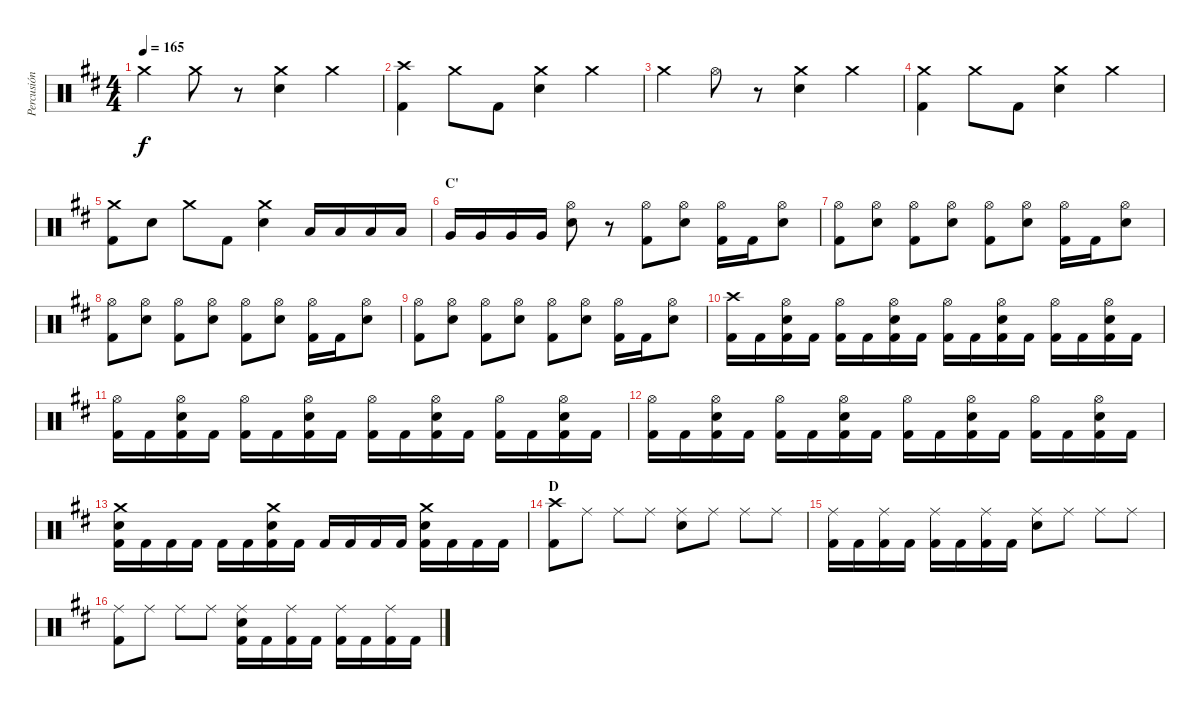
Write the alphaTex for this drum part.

\track ("Percusión" "Percusión") {instrument percussion}
\staff {score}
\articulation defaults
\ts (4 4)
\tempo 165
\clef neutral
\ks d "Crash medium (hit)".4{dy f} "Crash medium (hit)".8
r.8 ("Crash medium (hit)" "Electric Snare (hit)").4 "Crash medium (hit)".4 |
("Crash high (hit)" "Kick (hit) 2").4 "Crash medium (hit)".8 "Kick (hit) 2".8 ("Crash medium (hit)" "Electric Snare (hit)").4 "Crash medium (hit)".4 |
"Crash medium (hit)".4 "Hi-Hat (open)".8 r.8 ("Crash medium (hit)" "Electric Snare (hit)").4 "Crash medium (hit)".4 |
("Crash medium (hit)" "Kick (hit) 2").4 "Crash medium (hit)".8 "Kick (hit) 2".8 ("Crash medium (hit)" "Electric Snare (hit)").4 "Crash medium (hit)".4 |
("Crash medium (hit)" "Kick (hit) 2").8 "Electric Snare (hit)".8 "Crash medium (hit)".8 "Kick (hit) 2".8 ("Crash medium (hit)" "Electric Snare (hit)").4 "Low Tom (hit)".16 "Low Tom (hit)".16 "Low Tom (hit)".16 "Low Tom (hit)".16 |
\section ("" "C'")
"Very Low Tom (hit)".16 "Very Low Tom (hit)".16 "Very Low Tom (hit)".16 "Very Low Tom (hit)".16 ("Hi-Hat (open)" "Electric Snare (hit)").8 r.8 ("Hi-Hat (open)" "Kick (hit) 2").8 ("Hi-Hat (open)" "Electric Snare (hit)").8 ("Hi-Hat (open)" "Kick (hit) 2").16 "Kick (hit) 2".16 ("Hi-Hat (open)" "Electric Snare (hit)").8 |
("Hi-Hat (open)" "Kick (hit) 2").8 ("Hi-Hat (open)" "Electric Snare (hit)").8 ("Hi-Hat (open)" "Kick (hit) 2").8 ("Hi-Hat (open)" "Electric Snare (hit)").8 ("Hi-Hat (open)" "Kick (hit) 2").8 ("Hi-Hat (open)" "Electric Snare (hit)").8 ("Hi-Hat (open)" "Kick (hit) 2").16 "Kick (hit) 2".16 ("Hi-Hat (open)" "Electric Snare (hit)").8 |
("Hi-Hat (open)" "Kick (hit) 2").8 ("Hi-Hat (open)" "Electric Snare (hit)").8 ("Hi-Hat (open)" "Kick (hit) 2").8 ("Hi-Hat (open)" "Electric Snare (hit)").8 ("Hi-Hat (open)" "Kick (hit) 2").8 ("Hi-Hat (open)" "Electric Snare (hit)").8 ("Hi-Hat (open)" "Kick (hit) 2").16 "Kick (hit) 2".16 ("Hi-Hat (open)" "Electric Snare (hit)").8 |
("Hi-Hat (open)" "Kick (hit) 2").8 ("Hi-Hat (open)" "Electric Snare (hit)").8 ("Hi-Hat (open)" "Kick (hit) 2").8 ("Hi-Hat (open)" "Electric Snare (hit)").8 ("Hi-Hat (open)" "Kick (hit) 2").8 ("Hi-Hat (open)" "Electric Snare (hit)").8 ("Hi-Hat (open)" "Kick (hit) 2").16 "Kick (hit) 2".16 ("Hi-Hat (open)" "Electric Snare (hit)").8 |
("Crash high (hit)" "Kick (hit) 2").16 "Kick (hit) 2".16 ("Hi-Hat (open)" "Electric Snare (hit)" "Kick (hit) 2").16 "Kick (hit) 2".16 ("Hi-Hat (open)" "Kick (hit) 2").16 "Kick (hit) 2".16 ("Hi-Hat (open)" "Electric Snare (hit)" "Kick (hit) 2").16 "Kick (hit) 2".16 ("Hi-Hat (open)" "Kick (hit) 2").16 "Kick (hit) 2".16 ("Hi-Hat (open)" "Electric Snare (hit)" "Kick (hit) 2").16 "Kick (hit) 2".16 ("Hi-Hat (open)" "Kick (hit) 2").16 "Kick (hit) 2".16 ("Hi-Hat (open)" "Electric Snare (hit)" "Kick (hit) 2").16 "Kick (hit) 2".16 |
("Hi-Hat (open)" "Kick (hit) 2").16 "Kick (hit) 2".16 ("Hi-Hat (open)" "Electric Snare (hit)" "Kick (hit) 2").16 "Kick (hit) 2".16 ("Hi-Hat (open)" "Kick (hit) 2").16 "Kick (hit) 2".16 ("Hi-Hat (open)" "Electric Snare (hit)" "Kick (hit) 2").16 "Kick (hit) 2".16 ("Hi-Hat (open)" "Kick (hit) 2").16 "Kick (hit) 2".16 ("Hi-Hat (open)" "Electric Snare (hit)" "Kick (hit) 2").16 "Kick (hit) 2".16 ("Hi-Hat (open)" "Kick (hit) 2").16 "Kick (hit) 2".16 ("Hi-Hat (open)" "Electric Snare (hit)" "Kick (hit) 2").16 "Kick (hit) 2".16 |
("Hi-Hat (open)" "Kick (hit) 2").16 "Kick (hit) 2".16 ("Hi-Hat (open)" "Electric Snare (hit)" "Kick (hit) 2").16 "Kick (hit) 2".16 ("Hi-Hat (open)" "Kick (hit) 2").16 "Kick (hit) 2".16 ("Hi-Hat (open)" "Electric Snare (hit)" "Kick (hit) 2").16 "Kick (hit) 2".16 ("Hi-Hat (open)" "Kick (hit) 2").16 "Kick (hit) 2".16 ("Hi-Hat (open)" "Electric Snare (hit)" "Kick (hit) 2").16 "Kick (hit) 2".16 ("Hi-Hat (open)" "Kick (hit) 2").16 "Kick (hit) 2".16 ("Hi-Hat (open)" "Electric Snare (hit)" "Kick (hit) 2").16 "Kick (hit) 2".16 |
("Crash medium (hit)" "Electric Snare (hit)" "Kick (hit) 2").16 "Kick (hit) 2".16 "Kick (hit) 2".16 "Kick (hit) 2".16 "Kick (hit) 2".16 "Kick (hit) 2".16 ("Crash medium (hit)" "Electric Snare (hit)" "Kick (hit) 2").16 "Kick (hit) 2".16 "Kick (hit) 2".16 "Kick (hit) 2".16 "Kick (hit) 2".16 "Kick (hit) 2".16 ("Crash medium (hit)" "Electric Snare (hit)" "Kick (hit) 2").16 "Kick (hit) 2".16 "Kick (hit) 2".16 "Kick (hit) 2".16 |
\section ("" "D")
("Crash high (hit)" "Kick (hit) 2").8 "Ride (middle)".8 "Ride (middle)".8 "Ride (middle)".8 ("Ride (middle)" "Electric Snare (hit)").8 "Ride (middle)".8 "Ride (middle)".8 "Ride (middle)".8 |
("Ride (middle)" "Kick (hit) 2").16 "Kick (hit) 2".16 ("Ride (middle)" "Kick (hit) 2").16 "Kick (hit) 2".16 ("Ride (middle)" "Kick (hit) 2").16 "Kick (hit) 2".16 ("Ride (middle)" "Kick (hit) 2").16 "Kick (hit) 2".16 ("Ride (middle)" "Electric Snare (hit)").8 "Ride (middle)".8 "Ride (middle)".8 "Ride (middle)".8 |
("Ride (middle)" "Kick (hit) 2").8 "Ride (middle)".8 "Ride (middle)".8 "Ride (middle)".8 ("Ride (middle)" "Electric Snare (hit)" "Kick (hit) 2").16 "Kick (hit) 2".16 ("Ride (middle)" "Kick (hit) 2").16 "Kick (hit) 2".16 ("Ride (middle)" "Kick (hit) 2").16 "Kick (hit) 2".16 ("Ride (middle)" "Kick (hit) 2").16 "Kick (hit) 2".16
